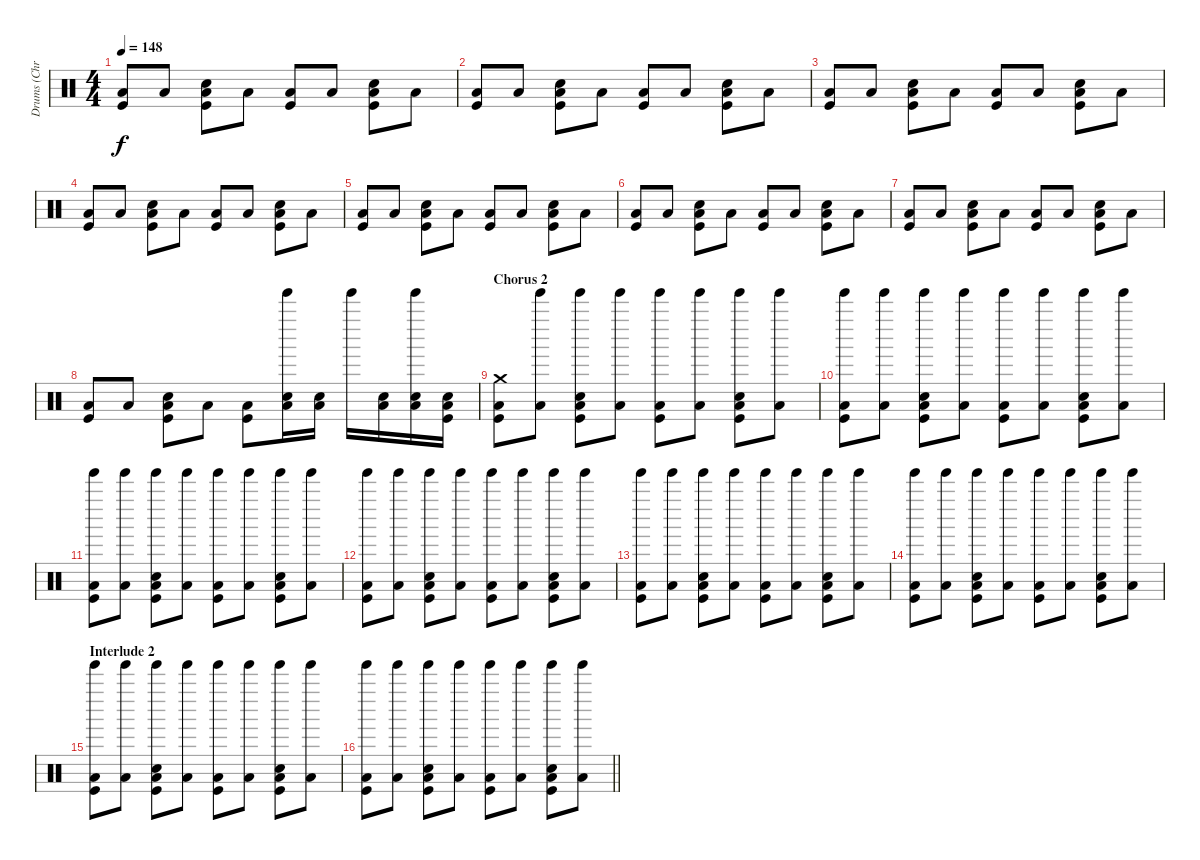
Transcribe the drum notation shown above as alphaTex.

\track ("Drums (Chris Dangerous)" "Drums (Chr") {instrument percussion}
\staff {score}
\articulation defaults
\ts (4 4)
\tempo 148
\clef neutral
\ks c
("Low Tom (hit)" "Kick (hit)").8{dy f} "Low Tom (hit)".8 ("Low Tom (hit)" "Kick (hit)" "Snare (hit) 2").8 "Low Tom (hit)".8 ("Low Tom (hit)" "Kick (hit)").8 "Low Tom (hit)".8 ("Low Tom (hit)" "Kick (hit)" "Snare (hit) 2").8 "Low Tom (hit)".8 |
("Low Tom (hit)" "Kick (hit)").8 "Low Tom (hit)".8 ("Low Tom (hit)" "Kick (hit)" "Snare (hit) 2").8 "Low Tom (hit)".8 ("Low Tom (hit)" "Kick (hit)").8 "Low Tom (hit)".8 ("Low Tom (hit)" "Kick (hit)" "Snare (hit) 2").8 "Low Tom (hit)".8 |
("Low Tom (hit)" "Kick (hit)").8 "Low Tom (hit)".8 ("Low Tom (hit)" "Kick (hit)" "Snare (hit) 2").8 "Low Tom (hit)".8 ("Low Tom (hit)" "Kick (hit)").8 "Low Tom (hit)".8 ("Low Tom (hit)" "Kick (hit)" "Snare (hit) 2").8 "Low Tom (hit)".8 |
("Low Tom (hit)" "Kick (hit)").8 "Low Tom (hit)".8 ("Low Tom (hit)" "Kick (hit)" "Snare (hit) 2").8 "Low Tom (hit)".8 ("Low Tom (hit)" "Kick (hit)").8 "Low Tom (hit)".8 ("Low Tom (hit)" "Kick (hit)" "Snare (hit) 2").8 "Low Tom (hit)".8 |
("Low Tom (hit)" "Kick (hit)").8 "Low Tom (hit)".8 ("Low Tom (hit)" "Kick (hit)" "Snare (hit) 2").8 "Low Tom (hit)".8 ("Low Tom (hit)" "Kick (hit)").8 "Low Tom (hit)".8 ("Low Tom (hit)" "Kick (hit)" "Snare (hit) 2").8 "Low Tom (hit)".8 |
("Low Tom (hit)" "Kick (hit)").8 "Low Tom (hit)".8 ("Low Tom (hit)" "Kick (hit)" "Snare (hit) 2").8 "Low Tom (hit)".8 ("Low Tom (hit)" "Kick (hit)").8 "Low Tom (hit)".8 ("Low Tom (hit)" "Kick (hit)" "Snare (hit) 2").8 "Low Tom (hit)".8 |
("Low Tom (hit)" "Kick (hit)").8 "Low Tom (hit)".8 ("Low Tom (hit)" "Kick (hit)" "Snare (hit) 2").8 "Low Tom (hit)".8 ("Low Tom (hit)" "Kick (hit)").8 "Low Tom (hit)".8 ("Low Tom (hit)" "Kick (hit)" "Snare (hit) 2").8 "Low Tom (hit)".8 |
("Low Tom (hit)" "Kick (hit)").8 "Low Tom (hit)".8 ("Low Tom (hit)" "Kick (hit)" "Snare (hit) 2").8 "Low Tom (hit)".8 ("Low Tom (hit)" "Kick (hit)").8 ("Low Tom (hit)" "Snare (hit) 2" "Tinkle Bell (hit)").16 ("Low Tom (hit)" "Snare (hit) 2").16 "Tinkle Bell (hit)".16 ("Low Tom (hit)" "Snare (hit) 2").16 ("Low Tom (hit)" "Snare (hit) 2" "Tinkle Bell (hit)").16 ("Low Tom (hit)" "Kick (hit)" "Snare (hit) 2").16 |
\section ("" "Chorus 2")
("Low Tom (hit)" "Kick (hit)" "Crash medium (hit)").8 ("Low Tom (hit)" "Tinkle Bell (hit)").8 ("Low Tom (hit)" "Kick (hit)" "Snare (hit) 2" "Tinkle Bell (hit)").8 ("Low Tom (hit)" "Tinkle Bell (hit)").8 ("Low Tom (hit)" "Kick (hit)" "Tinkle Bell (hit)").8 ("Low Tom (hit)" "Tinkle Bell (hit)").8 ("Low Tom (hit)" "Kick (hit)" "Snare (hit) 2" "Tinkle Bell (hit)").8 ("Low Tom (hit)" "Tinkle Bell (hit)").8 |
("Low Tom (hit)" "Kick (hit)" "Tinkle Bell (hit)").8 ("Low Tom (hit)" "Tinkle Bell (hit)").8 ("Low Tom (hit)" "Kick (hit)" "Snare (hit) 2" "Tinkle Bell (hit)").8 ("Low Tom (hit)" "Tinkle Bell (hit)").8 ("Low Tom (hit)" "Kick (hit)" "Tinkle Bell (hit)").8 ("Low Tom (hit)" "Tinkle Bell (hit)").8 ("Low Tom (hit)" "Kick (hit)" "Snare (hit) 2" "Tinkle Bell (hit)").8 ("Low Tom (hit)" "Tinkle Bell (hit)").8 |
("Low Tom (hit)" "Kick (hit)" "Tinkle Bell (hit)").8 ("Low Tom (hit)" "Tinkle Bell (hit)").8 ("Low Tom (hit)" "Kick (hit)" "Snare (hit) 2" "Tinkle Bell (hit)").8 ("Low Tom (hit)" "Tinkle Bell (hit)").8 ("Low Tom (hit)" "Kick (hit)" "Tinkle Bell (hit)").8 ("Low Tom (hit)" "Tinkle Bell (hit)").8 ("Low Tom (hit)" "Kick (hit)" "Snare (hit) 2" "Tinkle Bell (hit)").8 ("Low Tom (hit)" "Tinkle Bell (hit)").8 |
("Low Tom (hit)" "Kick (hit)" "Tinkle Bell (hit)").8 ("Low Tom (hit)" "Tinkle Bell (hit)").8 ("Low Tom (hit)" "Kick (hit)" "Snare (hit) 2" "Tinkle Bell (hit)").8 ("Low Tom (hit)" "Tinkle Bell (hit)").8 ("Low Tom (hit)" "Kick (hit)" "Tinkle Bell (hit)").8 ("Low Tom (hit)" "Tinkle Bell (hit)").8 ("Low Tom (hit)" "Kick (hit)" "Snare (hit) 2" "Tinkle Bell (hit)").8 ("Low Tom (hit)" "Tinkle Bell (hit)").8 |
("Low Tom (hit)" "Kick (hit)" "Tinkle Bell (hit)").8 ("Low Tom (hit)" "Tinkle Bell (hit)").8 ("Low Tom (hit)" "Kick (hit)" "Snare (hit) 2" "Tinkle Bell (hit)").8 ("Low Tom (hit)" "Tinkle Bell (hit)").8 ("Low Tom (hit)" "Kick (hit)" "Tinkle Bell (hit)").8 ("Low Tom (hit)" "Tinkle Bell (hit)").8 ("Low Tom (hit)" "Kick (hit)" "Snare (hit) 2" "Tinkle Bell (hit)").8 ("Low Tom (hit)" "Tinkle Bell (hit)").8 |
("Low Tom (hit)" "Kick (hit)" "Tinkle Bell (hit)").8 ("Low Tom (hit)" "Tinkle Bell (hit)").8 ("Low Tom (hit)" "Kick (hit)" "Snare (hit) 2" "Tinkle Bell (hit)").8 ("Low Tom (hit)" "Tinkle Bell (hit)").8 ("Low Tom (hit)" "Kick (hit)" "Tinkle Bell (hit)").8 ("Low Tom (hit)" "Tinkle Bell (hit)").8 ("Low Tom (hit)" "Kick (hit)" "Snare (hit) 2" "Tinkle Bell (hit)").8 ("Low Tom (hit)" "Tinkle Bell (hit)").8 |
\section ("" "Interlude 2")
("Low Tom (hit)" "Kick (hit)" "Tinkle Bell (hit)").8 ("Low Tom (hit)" "Tinkle Bell (hit)").8 ("Low Tom (hit)" "Kick (hit)" "Snare (hit) 2" "Tinkle Bell (hit)").8 ("Low Tom (hit)" "Tinkle Bell (hit)").8 ("Low Tom (hit)" "Kick (hit)" "Tinkle Bell (hit)").8 ("Low Tom (hit)" "Tinkle Bell (hit)").8 ("Low Tom (hit)" "Kick (hit)" "Snare (hit) 2" "Tinkle Bell (hit)").8 ("Low Tom (hit)" "Tinkle Bell (hit)").8 |
\barLineRight lightlight
("Low Tom (hit)" "Kick (hit)" "Tinkle Bell (hit)").8 ("Low Tom (hit)" "Tinkle Bell (hit)").8 ("Low Tom (hit)" "Kick (hit)" "Snare (hit) 2" "Tinkle Bell (hit)").8 ("Low Tom (hit)" "Tinkle Bell (hit)").8 ("Low Tom (hit)" "Kick (hit)" "Tinkle Bell (hit)").8 ("Low Tom (hit)" "Tinkle Bell (hit)").8 ("Low Tom (hit)" "Kick (hit)" "Snare (hit) 2" "Tinkle Bell (hit)").8 ("Low Tom (hit)" "Tinkle Bell (hit)").8
